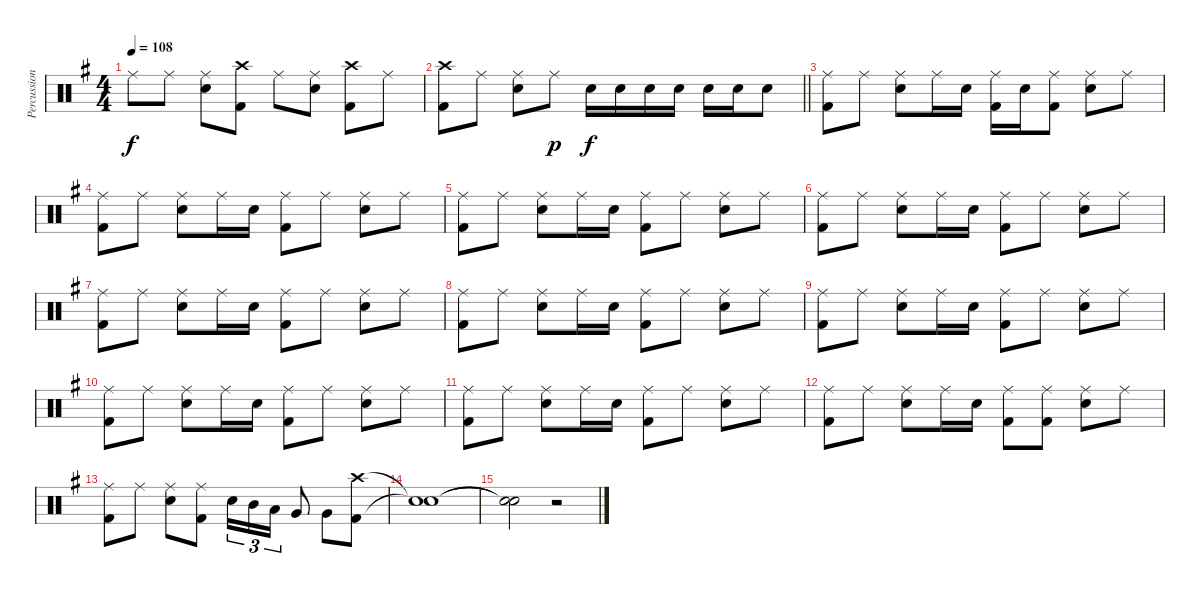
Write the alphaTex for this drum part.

\track ("Percussion" "Percussion") {instrument percussion}
\staff {score}
\articulation defaults
\ts (4 4)
\tempo 108
\clef neutral
\ks g "Ride (middle)".8{dy f} "Ride (middle)".8
("Ride (middle)" "Snare (hit) 2").8 ("Crash high (hit)" "Kick (hit) 2").8 "Ride (middle)".8 ("Ride (middle)" "Snare (hit) 2").8 ("Crash high (hit)" "Kick (hit) 2").8 "Ride (middle)".8 |
\barLineRight lightlight
("Crash high (hit)" "Kick (hit) 2").8 "Ride (middle)".8 ("Ride (middle)" "Snare (hit) 2").8 "Ride (middle)".8{dy p} "Snare (hit) 2".16{dy f} "Snare (hit) 2".16 "Snare (hit) 2".16 "Snare (hit) 2".16 "Snare (hit) 2".16 "Snare (hit) 2".16 "Snare (hit) 2".8 |
("Ride (middle)" "Kick (hit) 2").8 "Ride (middle)".8 ("Ride (middle)" "Snare (hit) 2").8 "Ride (middle)".16 "Snare (hit) 2".16 ("Ride (middle)" "Kick (hit) 2").16 "Snare (hit) 2".16 ("Ride (middle)" "Kick (hit) 2").8 ("Ride (middle)" "Snare (hit) 2").8 "Ride (middle)".8 |
("Ride (middle)" "Kick (hit) 2").8 "Ride (middle)".8 ("Ride (middle)" "Snare (hit) 2").8 "Ride (middle)".16 "Snare (hit) 2".16 ("Ride (middle)" "Kick (hit) 2").8 "Ride (middle)".8 ("Ride (middle)" "Snare (hit) 2").8 "Ride (middle)".8 |
("Ride (middle)" "Kick (hit) 2").8 "Ride (middle)".8 ("Ride (middle)" "Snare (hit) 2").8 "Ride (middle)".16 "Snare (hit) 2".16 ("Ride (middle)" "Kick (hit) 2").8 "Ride (middle)".8 ("Ride (middle)" "Snare (hit) 2").8 "Ride (middle)".8 |
("Ride (middle)" "Kick (hit) 2").8 "Ride (middle)".8 ("Ride (middle)" "Snare (hit) 2").8 "Ride (middle)".16 "Snare (hit) 2".16 ("Ride (middle)" "Kick (hit) 2").8 "Ride (middle)".8 ("Ride (middle)" "Snare (hit) 2").8 "Ride (middle)".8 |
("Ride (middle)" "Kick (hit) 2").8 "Ride (middle)".8 ("Ride (middle)" "Snare (hit) 2").8 "Ride (middle)".16 "Snare (hit) 2".16 ("Ride (middle)" "Kick (hit) 2").8 "Ride (middle)".8 ("Ride (middle)" "Snare (hit) 2").8 "Ride (middle)".8 |
("Ride (middle)" "Kick (hit) 2").8 "Ride (middle)".8 ("Ride (middle)" "Snare (hit) 2").8 "Ride (middle)".16 "Snare (hit) 2".16 ("Ride (middle)" "Kick (hit) 2").8 "Ride (middle)".8 ("Ride (middle)" "Snare (hit) 2").8 "Ride (middle)".8 |
("Ride (middle)" "Kick (hit) 2").8 "Ride (middle)".8 ("Ride (middle)" "Snare (hit) 2").8 "Ride (middle)".16 "Snare (hit) 2".16 ("Ride (middle)" "Kick (hit) 2").8 "Ride (middle)".8 ("Ride (middle)" "Snare (hit) 2").8 "Ride (middle)".8 |
("Ride (middle)" "Kick (hit) 2").8 "Ride (middle)".8 ("Ride (middle)" "Snare (hit) 2").8 "Ride (middle)".16 "Snare (hit) 2".16 ("Ride (middle)" "Kick (hit) 2").8 "Ride (middle)".8 ("Ride (middle)" "Snare (hit) 2").8 "Ride (middle)".8 |
("Ride (middle)" "Kick (hit) 2").8 "Ride (middle)".8 ("Ride (middle)" "Snare (hit) 2").8 "Ride (middle)".16 "Snare (hit) 2".16 ("Ride (middle)" "Kick (hit) 2").8 "Ride (middle)".8 ("Ride (middle)" "Snare (hit) 2").8 "Ride (middle)".8 |
("Ride (middle)" "Kick (hit) 2").8 "Ride (middle)".8 ("Ride (middle)" "Snare (hit) 2").8 "Ride (middle)".16 "Snare (hit) 2".16 ("Ride (middle)" "Kick (hit) 2").8 ("Ride (middle)" "Kick (hit) 2").8 ("Ride (middle)" "Snare (hit) 2").8 "Ride (middle)".8 |
("Ride (middle)" "Kick (hit) 2").8 "Ride (middle)".8 ("Ride (middle)" "Snare (hit) 2").8 ("Ride (middle)" "Kick (hit) 2").8 "Snare (hit) 2".16{tu (3 2)} "Mid Tom (hit)".16{tu (3 2)} "Low Tom (hit)".16{tu (3 2)} "Very Low Tom (hit)".8 "Very Low Tom (hit)".8 ("Crash high (hit)" "Kick (hit) 2").8 |
("Snare (hit)"{t} "Snare (hit)"{t}).1 |
("Snare (hit)"{t} "Snare (hit)"{t}).2 r.2
